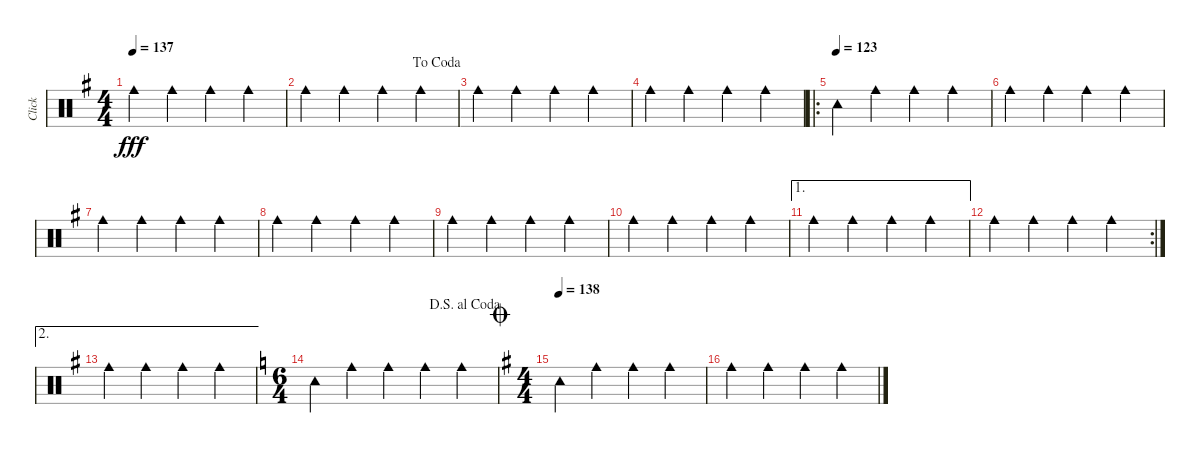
\track ("Click" "Click") {mute instrument percussion}
\staff {score}
\articulation defaults
\ts (4 4)
\tempo 137
\clef neutral
\ks g "Cowbell medium (hit)".4{dy fff} "Cowbell medium (hit)".4 "Cowbell medium (hit)".4 "Cowbell medium (hit)".4
|
\jump dacoda "Cowbell medium (hit)".4 "Cowbell medium (hit)".4 "Cowbell medium (hit)".4 "Cowbell medium (hit)".4
|
"Cowbell medium (hit)".4 "Cowbell medium (hit)".4 "Cowbell medium (hit)".4 "Cowbell medium (hit)".4 |
"Cowbell medium (hit)".4 "Cowbell medium (hit)".4 "Cowbell medium (hit)".4 "Cowbell medium (hit)".4 |
\ro
\tempo (123)
"Tambourine (hit)".4 "Cowbell medium (hit)".4 "Cowbell medium (hit)".4 "Cowbell medium (hit)".4 |
"Cowbell medium (hit)".4 "Cowbell medium (hit)".4 "Cowbell medium (hit)".4 "Cowbell medium (hit)".4 |
"Cowbell medium (hit)".4 "Cowbell medium (hit)".4 "Cowbell medium (hit)".4 "Cowbell medium (hit)".4 |
"Cowbell medium (hit)".4 "Cowbell medium (hit)".4 "Cowbell medium (hit)".4 "Cowbell medium (hit)".4 |
"Cowbell medium (hit)".4 "Cowbell medium (hit)".4 "Cowbell medium (hit)".4 "Cowbell medium (hit)".4 |
"Cowbell medium (hit)".4 "Cowbell medium (hit)".4 "Cowbell medium (hit)".4 "Cowbell medium (hit)".4 |
\ae 1 "Cowbell medium (hit)".4 "Cowbell medium (hit)".4 "Cowbell medium (hit)".4 "Cowbell medium (hit)".4
|
\rc 2 "Cowbell medium (hit)".4 "Cowbell medium (hit)".4 "Cowbell medium (hit)".4 "Cowbell medium (hit)".4
|
\ae 2 "Cowbell medium (hit)".4 "Cowbell medium (hit)".4 "Cowbell medium (hit)".4 "Cowbell medium (hit)".4
|
\ts (6 4)
\jump dalsegnoalcoda
\ks c "Tambourine (hit)".4 "Cowbell medium (hit)".4 "Cowbell medium (hit)".4 "Cowbell medium (hit)".4 "Cowbell medium (hit)".4
|
\ts (4 4)
\jump coda
\tempo 138
\ks g "Tambourine (hit)".4 "Cowbell medium (hit)".4 "Cowbell medium (hit)".4 "Cowbell medium (hit)".4
|
"Cowbell medium (hit)".4 "Cowbell medium (hit)".4 "Cowbell medium (hit)".4 "Cowbell medium (hit)".4
